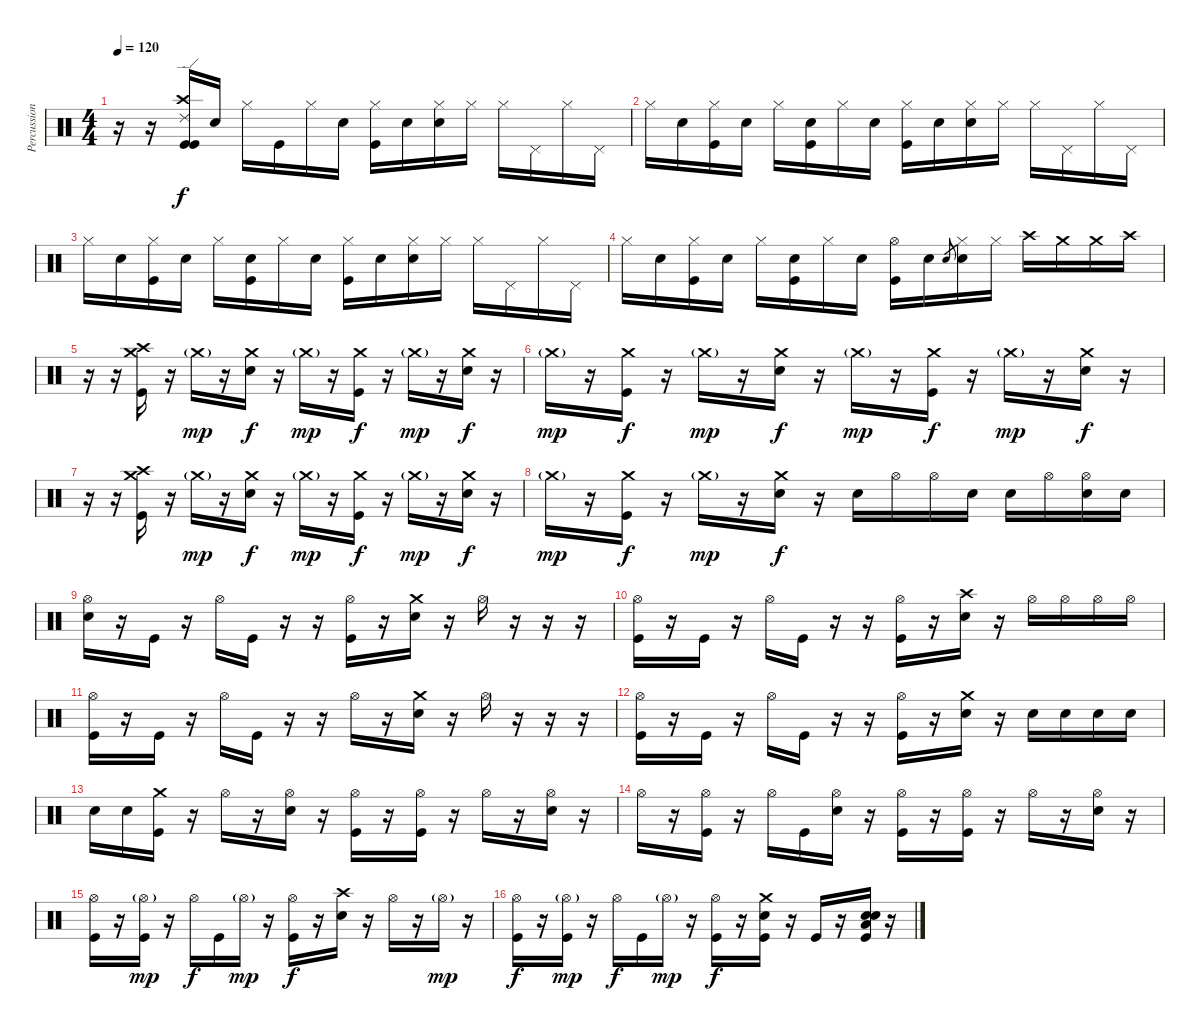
\track ("Percussion" "Percussion") {instrument percussion}
\staff {score}
\articulation defaults
\ts (4 4)
\tempo 120
\clef neutral
\ks c
r.16{dy f} r.16 ("Ride (edge) 2" "Crash high (hit)" "Kick (hit)" "Kick (hit)").16 "Snare (hit)"{x}.16 "Hi-Hat (closed)".16 "Kick (hit)".16 "Hi-Hat (closed)".16 "Snare (hit)"{x}.16 ("Hi-Hat (closed)" "Kick (hit)").16 "Snare (hit)"{x}.16 ("Hi-Hat (closed)" "Snare (hit) 2").16 "Hi-Hat (closed)"{x}.16 "Hi-Hat (closed)".16 "Pedal Hi-Hat (hit)"{x}.16 "Hi-Hat (closed)".16 "Pedal Hi-Hat (hit)"{x}.16 |
"Hi-Hat (closed)".16 "Snare (hit)"{x}.16 ("Hi-Hat (closed)" "Kick (hit)").16 "Snare (hit)"{x}.16 "Hi-Hat (closed)".16 ("Snare (hit)"{x} "Kick (hit)").16 "Hi-Hat (closed)".16 "Snare (hit)"{x}.16 ("Hi-Hat (closed)" "Kick (hit)").16 "Snare (hit)"{x}.16 ("Hi-Hat (closed)" "Snare (hit) 2").16 "Hi-Hat (closed)"{x}.16 "Hi-Hat (closed)".16 "Pedal Hi-Hat (hit)"{x}.16 "Hi-Hat (closed)".16 "Pedal Hi-Hat (hit)"{x}.16 |
"Hi-Hat (closed)".16 "Snare (hit)"{x}.16 ("Hi-Hat (closed)" "Kick (hit)").16 "Snare (hit)"{x}.16 "Hi-Hat (closed)".16 ("Snare (hit)"{x} "Kick (hit)").16 "Hi-Hat (closed)".16 "Snare (hit)"{x}.16 ("Hi-Hat (closed)" "Kick (hit)").16 "Snare (hit)"{x}.16 ("Hi-Hat (closed)" "Snare (hit) 2").16 "Hi-Hat (closed)"{x}.16 "Hi-Hat (closed)".16 "Pedal Hi-Hat (hit)"{x}.16 "Hi-Hat (closed)".16 "Pedal Hi-Hat (hit)"{x}.16 |
"Hi-Hat (closed)".16 "Snare (hit)"{x}.16 ("Hi-Hat (closed)" "Kick (hit)").16 "Snare (hit)"{x}.16 "Hi-Hat (closed)".16 ("Snare (hit)"{x} "Kick (hit)").16 "Hi-Hat (closed)".16 "Snare (hit)"{x}.16 ("Hi-Hat (open)" "Kick (hit)").16 "Snare (hit)"{x}.16 "Snare (hit) 2".8{gr} ("Hi-Hat (closed)" "Snare (hit) 2").16 "Hi-Hat (closed)"{x}.16 "Crash high (hit)"{x}.16 "Crash medium (hit)"{x}.16 "Crash medium (hit)"{x}.16 "Crash high (hit)"{x}.16 |
r.16 r.16 ("Crash high (hit)" "Crash medium (hit)" "Kick (hit)").16 r.16 "Crash medium (hit)"{g}.16{dy mp} r.16 ("Crash medium (hit)" "Snare (hit) 2").16{dy f} r.16 "Crash medium (hit)"{g}.16{dy mp} r.16 ("Crash medium (hit)" "Kick (hit)").16{dy f} r.16 "Crash medium (hit)"{g}.16{dy mp} r.16 ("Crash medium (hit)" "Snare (hit) 2").16{dy f} r.16 |
"Crash medium (hit)"{g}.16{dy mp} r.16 ("Crash medium (hit)" "Kick (hit)").16{dy f} r.16 "Crash medium (hit)"{g}.16{dy mp} r.16 ("Crash medium (hit)" "Snare (hit) 2").16{dy f} r.16 "Crash medium (hit)"{g}.16{dy mp} r.16 ("Crash medium (hit)" "Kick (hit)").16{dy f} r.16 "Crash medium (hit)"{g}.16{dy mp} r.16 ("Crash medium (hit)" "Snare (hit) 2").16{dy f} r.16 |
r.16 r.16 ("Crash high (hit)" "Crash medium (hit)" "Kick (hit)").16 r.16 "Crash medium (hit)"{g}.16{dy mp} r.16 ("Crash medium (hit)" "Snare (hit) 2").16{dy f} r.16 "Crash medium (hit)"{g}.16{dy mp} r.16 ("Crash medium (hit)" "Kick (hit)").16{dy f} r.16 "Crash medium (hit)"{g}.16{dy mp} r.16 ("Crash medium (hit)" "Snare (hit) 2").16{dy f} r.16 |
"Crash medium (hit)"{g}.16{dy mp} r.16 ("Crash medium (hit)" "Kick (hit)").16{dy f} r.16 "Crash medium (hit)"{g}.16{dy mp} r.16 ("Crash medium (hit)" "Snare (hit) 2").16{dy f} r.16 "Snare (hit) 2".16 "Hi-Hat (open)".16 "Hi-Hat (open)".16 "Snare (hit) 2".16 "Snare (hit) 2".16 "Hi-Hat (open)".16 ("Hi-Hat (open)" "Snare (hit) 2").16 "Snare (hit) 2".16 |
("Hi-Hat (open)" "Snare (hit) 2").16 r.16 "Kick (hit)".16 r.16 "Hi-Hat (open)".16 "Kick (hit)".16 r.16 r.16 ("Hi-Hat (open)" "Kick (hit)").16 r.16 ("Crash medium (hit)" "Snare (hit) 2").16 r.16 "Hi-Hat (open)".16 r.16 r.16 r.16 |
("Hi-Hat (open)" "Kick (hit)").16 r.16 "Kick (hit)".16 r.16 "Hi-Hat (open)".16 "Kick (hit)".16 r.16 r.16 ("Hi-Hat (open)" "Kick (hit)").16 r.16 ("Crash high (hit)" "Snare (hit) 2").16 r.16 "Hi-Hat (open)".16 "Hi-Hat (open)".16 "Hi-Hat (open)".16 "Hi-Hat (open)".16 |
("Hi-Hat (open)" "Kick (hit)").16 r.16 "Kick (hit)".16 r.16 "Hi-Hat (open)".16 "Kick (hit)".16 r.16 r.16 "Hi-Hat (open)".16 r.16 ("Crash medium (hit)" "Snare (hit) 2").16 r.16 "Hi-Hat (open)".16 r.16 r.16 r.16 |
("Hi-Hat (open)" "Kick (hit)").16 r.16 "Kick (hit)".16 r.16 "Hi-Hat (open)".16 "Kick (hit)".16 r.16 r.16 ("Hi-Hat (open)" "Kick (hit)").16 r.16 ("Crash medium (hit)" "Snare (hit) 2").16 r.16 "Snare (hit) 2".16 "Snare (hit) 2".16 "Snare (hit) 2".16 "Snare (hit) 2".16 |
"Snare (hit) 2".16 "Snare (hit) 2".16 ("Crash medium (hit)" "Kick (hit)").16 r.16 "Hi-Hat (open)".16 r.16 ("Hi-Hat (open)" "Snare (hit) 2").16 r.16 ("Hi-Hat (open)" "Kick (hit)").16 r.16 ("Hi-Hat (open)" "Kick (hit)").16 r.16 "Hi-Hat (open)".16 r.16 ("Hi-Hat (open)" "Snare (hit) 2").16 r.16 |
"Hi-Hat (open)".16 r.16 ("Hi-Hat (open)" "Kick (hit)").16 r.16 "Hi-Hat (open)".16 "Kick (hit)".16 ("Hi-Hat (open)" "Snare (hit) 2").16 r.16 ("Hi-Hat (open)" "Kick (hit)").16 r.16 ("Hi-Hat (open)" "Kick (hit)").16 r.16 "Hi-Hat (open)".16 r.16 ("Hi-Hat (open)" "Snare (hit) 2").16 r.16 |
("Hi-Hat (open)" "Kick (hit)").16 r.16 ("Hi-Hat (open)"{g} "Kick (hit)").16{dy mp} r.16 "Hi-Hat (open)".16{dy f} "Kick (hit)".16 "Hi-Hat (open)"{g}.16{dy mp} r.16 ("Hi-Hat (open)" "Kick (hit)").16{dy f} r.16 ("Crash high (hit)" "Snare (hit) 2").16 r.16 "Hi-Hat (open)".16 r.16 "Hi-Hat (open)"{g}.16{dy mp} r.16 |
("Hi-Hat (open)" "Kick (hit)").16{dy f} r.16 ("Hi-Hat (open)"{g} "Kick (hit)").16{dy mp} r.16 "Hi-Hat (open)".16{dy f} "Kick (hit)".16 "Hi-Hat (open)"{g}.16{dy mp} r.16 ("Hi-Hat (open)" "Kick (hit)").16{dy f} r.16 ("Crash medium (hit)" "Snare (hit) 2" "Kick (hit)").16 r.16 "Kick (hit)".16 r.16 ("Low Floor Tom (hit)" "Snare (hit) 2" "Snare (hit) 2" "Kick (hit)").16 r.16
